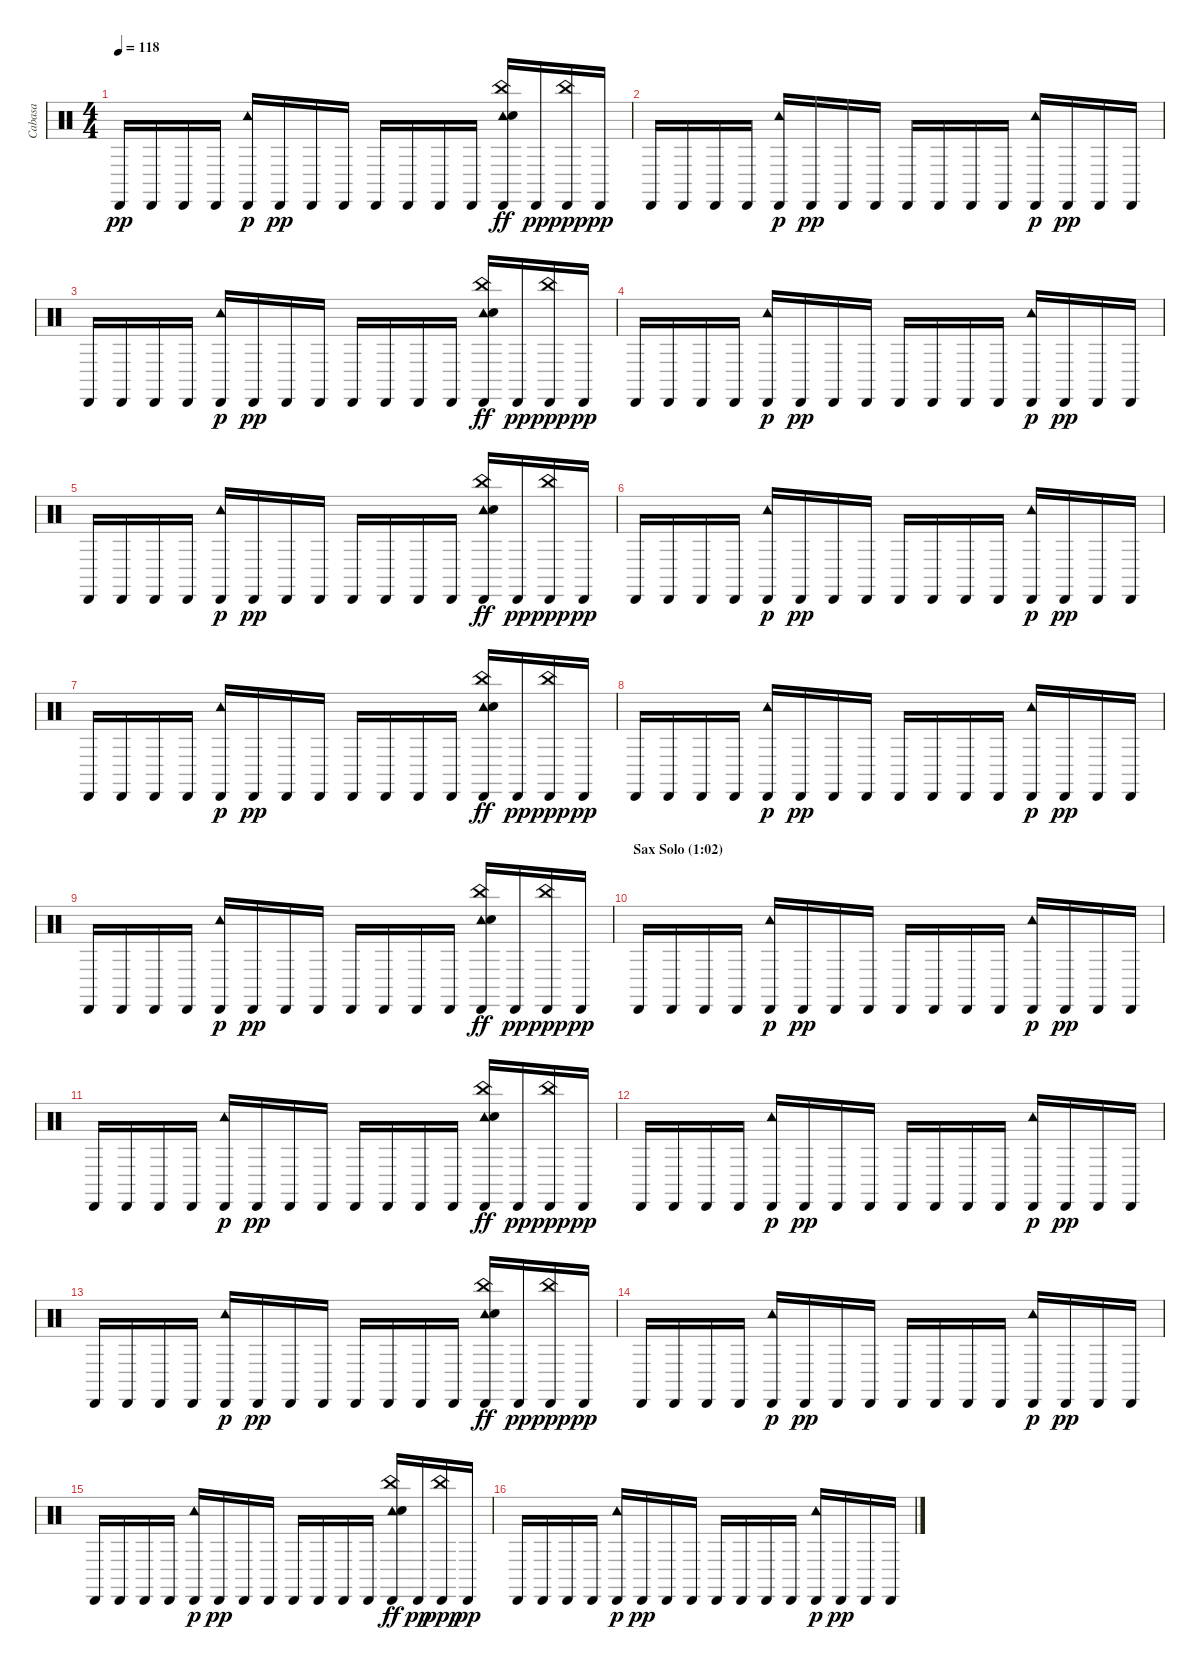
\track ("Cabasa" "Cabasa") {instrument percussion}
\staff {score}
\articulation defaults
\ts (4 4)
\tempo 118
\clef neutral
\ks c "Cabasa (hit)".16{dy pp} "Cabasa (hit)".16 "Cabasa (hit)".16 "Cabasa (hit)".16
("Cabasa (hit)" "Tambourine (hit)").16{dy p} "Cabasa (hit)".16{dy pp} "Cabasa (hit)".16 "Cabasa (hit)".16 "Cabasa (hit)".16 "Cabasa (hit)".16 "Cabasa (hit)".16 "Cabasa (hit)".16 ("Cabasa (hit)" "Tambourine (hit)" "Hand Clap (hit)" "China (hit)").16{dy ff} "Cabasa (hit)".16{dy pp} ("Cabasa (hit)" "China (hit)").16{dy ppp} "Cabasa (hit)".16{dy pp} |
"Cabasa (hit)".16 "Cabasa (hit)".16 "Cabasa (hit)".16 "Cabasa (hit)".16 ("Cabasa (hit)" "Tambourine (hit)").16{dy p} "Cabasa (hit)".16{dy pp} "Cabasa (hit)".16 "Cabasa (hit)".16 "Cabasa (hit)".16 "Cabasa (hit)".16 "Cabasa (hit)".16 "Cabasa (hit)".16 ("Cabasa (hit)" "Tambourine (hit)").16{dy p} "Cabasa (hit)".16{dy pp} "Cabasa (hit)".16 "Cabasa (hit)".16 |
"Cabasa (hit)".16 "Cabasa (hit)".16 "Cabasa (hit)".16 "Cabasa (hit)".16 ("Cabasa (hit)" "Tambourine (hit)").16{dy p} "Cabasa (hit)".16{dy pp} "Cabasa (hit)".16 "Cabasa (hit)".16 "Cabasa (hit)".16 "Cabasa (hit)".16 "Cabasa (hit)".16 "Cabasa (hit)".16 ("Cabasa (hit)" "Tambourine (hit)" "Hand Clap (hit)" "China (hit)").16{dy ff} "Cabasa (hit)".16{dy pp} ("Cabasa (hit)" "China (hit)").16{dy ppp} "Cabasa (hit)".16{dy pp} |
"Cabasa (hit)".16 "Cabasa (hit)".16 "Cabasa (hit)".16 "Cabasa (hit)".16 ("Cabasa (hit)" "Tambourine (hit)").16{dy p} "Cabasa (hit)".16{dy pp} "Cabasa (hit)".16 "Cabasa (hit)".16 "Cabasa (hit)".16 "Cabasa (hit)".16 "Cabasa (hit)".16 "Cabasa (hit)".16 ("Cabasa (hit)" "Tambourine (hit)").16{dy p} "Cabasa (hit)".16{dy pp} "Cabasa (hit)".16 "Cabasa (hit)".16 |
"Cabasa (hit)".16 "Cabasa (hit)".16 "Cabasa (hit)".16 "Cabasa (hit)".16 ("Cabasa (hit)" "Tambourine (hit)").16{dy p} "Cabasa (hit)".16{dy pp} "Cabasa (hit)".16 "Cabasa (hit)".16 "Cabasa (hit)".16 "Cabasa (hit)".16 "Cabasa (hit)".16 "Cabasa (hit)".16 ("Cabasa (hit)" "Tambourine (hit)" "Hand Clap (hit)" "China (hit)").16{dy ff} "Cabasa (hit)".16{dy pp} ("Cabasa (hit)" "China (hit)").16{dy ppp} "Cabasa (hit)".16{dy pp} |
"Cabasa (hit)".16 "Cabasa (hit)".16 "Cabasa (hit)".16 "Cabasa (hit)".16 ("Cabasa (hit)" "Tambourine (hit)").16{dy p} "Cabasa (hit)".16{dy pp} "Cabasa (hit)".16 "Cabasa (hit)".16 "Cabasa (hit)".16 "Cabasa (hit)".16 "Cabasa (hit)".16 "Cabasa (hit)".16 ("Cabasa (hit)" "Tambourine (hit)").16{dy p} "Cabasa (hit)".16{dy pp} "Cabasa (hit)".16 "Cabasa (hit)".16 |
"Cabasa (hit)".16 "Cabasa (hit)".16 "Cabasa (hit)".16 "Cabasa (hit)".16 ("Cabasa (hit)" "Tambourine (hit)").16{dy p} "Cabasa (hit)".16{dy pp} "Cabasa (hit)".16 "Cabasa (hit)".16 "Cabasa (hit)".16 "Cabasa (hit)".16 "Cabasa (hit)".16 "Cabasa (hit)".16 ("Cabasa (hit)" "Tambourine (hit)" "Hand Clap (hit)" "China (hit)").16{dy ff} "Cabasa (hit)".16{dy pp} ("Cabasa (hit)" "China (hit)").16{dy ppp} "Cabasa (hit)".16{dy pp} |
"Cabasa (hit)".16 "Cabasa (hit)".16 "Cabasa (hit)".16 "Cabasa (hit)".16 ("Cabasa (hit)" "Tambourine (hit)").16{dy p} "Cabasa (hit)".16{dy pp} "Cabasa (hit)".16 "Cabasa (hit)".16 "Cabasa (hit)".16 "Cabasa (hit)".16 "Cabasa (hit)".16 "Cabasa (hit)".16 ("Cabasa (hit)" "Tambourine (hit)").16{dy p} "Cabasa (hit)".16{dy pp} "Cabasa (hit)".16 "Cabasa (hit)".16 |
"Cabasa (hit)".16 "Cabasa (hit)".16 "Cabasa (hit)".16 "Cabasa (hit)".16 ("Cabasa (hit)" "Tambourine (hit)").16{dy p} "Cabasa (hit)".16{dy pp} "Cabasa (hit)".16 "Cabasa (hit)".16 "Cabasa (hit)".16 "Cabasa (hit)".16 "Cabasa (hit)".16 "Cabasa (hit)".16 ("Cabasa (hit)" "Tambourine (hit)" "Hand Clap (hit)" "China (hit)").16{dy ff} "Cabasa (hit)".16{dy pp} ("Cabasa (hit)" "China (hit)").16{dy ppp} "Cabasa (hit)".16{dy pp} |
\section ("" "Sax Solo (1:02)")
"Cabasa (hit)".16 "Cabasa (hit)".16 "Cabasa (hit)".16 "Cabasa (hit)".16 ("Cabasa (hit)" "Tambourine (hit)").16{dy p} "Cabasa (hit)".16{dy pp} "Cabasa (hit)".16 "Cabasa (hit)".16 "Cabasa (hit)".16 "Cabasa (hit)".16 "Cabasa (hit)".16 "Cabasa (hit)".16 ("Cabasa (hit)" "Tambourine (hit)").16{dy p} "Cabasa (hit)".16{dy pp} "Cabasa (hit)".16 "Cabasa (hit)".16 |
"Cabasa (hit)".16 "Cabasa (hit)".16 "Cabasa (hit)".16 "Cabasa (hit)".16 ("Cabasa (hit)" "Tambourine (hit)").16{dy p} "Cabasa (hit)".16{dy pp} "Cabasa (hit)".16 "Cabasa (hit)".16 "Cabasa (hit)".16 "Cabasa (hit)".16 "Cabasa (hit)".16 "Cabasa (hit)".16 ("Cabasa (hit)" "Tambourine (hit)" "Hand Clap (hit)" "China (hit)").16{dy ff} "Cabasa (hit)".16{dy pp} ("Cabasa (hit)" "China (hit)").16{dy ppp} "Cabasa (hit)".16{dy pp} |
"Cabasa (hit)".16 "Cabasa (hit)".16 "Cabasa (hit)".16 "Cabasa (hit)".16 ("Cabasa (hit)" "Tambourine (hit)").16{dy p} "Cabasa (hit)".16{dy pp} "Cabasa (hit)".16 "Cabasa (hit)".16 "Cabasa (hit)".16 "Cabasa (hit)".16 "Cabasa (hit)".16 "Cabasa (hit)".16 ("Cabasa (hit)" "Tambourine (hit)").16{dy p} "Cabasa (hit)".16{dy pp} "Cabasa (hit)".16 "Cabasa (hit)".16 |
"Cabasa (hit)".16 "Cabasa (hit)".16 "Cabasa (hit)".16 "Cabasa (hit)".16 ("Cabasa (hit)" "Tambourine (hit)").16{dy p} "Cabasa (hit)".16{dy pp} "Cabasa (hit)".16 "Cabasa (hit)".16 "Cabasa (hit)".16 "Cabasa (hit)".16 "Cabasa (hit)".16 "Cabasa (hit)".16 ("Cabasa (hit)" "Tambourine (hit)" "Hand Clap (hit)" "China (hit)").16{dy ff} "Cabasa (hit)".16{dy pp} ("Cabasa (hit)" "China (hit)").16{dy ppp} "Cabasa (hit)".16{dy pp} |
"Cabasa (hit)".16 "Cabasa (hit)".16 "Cabasa (hit)".16 "Cabasa (hit)".16 ("Cabasa (hit)" "Tambourine (hit)").16{dy p} "Cabasa (hit)".16{dy pp} "Cabasa (hit)".16 "Cabasa (hit)".16 "Cabasa (hit)".16 "Cabasa (hit)".16 "Cabasa (hit)".16 "Cabasa (hit)".16 ("Cabasa (hit)" "Tambourine (hit)").16{dy p} "Cabasa (hit)".16{dy pp} "Cabasa (hit)".16 "Cabasa (hit)".16 |
"Cabasa (hit)".16 "Cabasa (hit)".16 "Cabasa (hit)".16 "Cabasa (hit)".16 ("Cabasa (hit)" "Tambourine (hit)").16{dy p} "Cabasa (hit)".16{dy pp} "Cabasa (hit)".16 "Cabasa (hit)".16 "Cabasa (hit)".16 "Cabasa (hit)".16 "Cabasa (hit)".16 "Cabasa (hit)".16 ("Cabasa (hit)" "Tambourine (hit)" "Hand Clap (hit)" "China (hit)").16{dy ff} "Cabasa (hit)".16{dy pp} ("Cabasa (hit)" "China (hit)").16{dy ppp} "Cabasa (hit)".16{dy pp} |
"Cabasa (hit)".16 "Cabasa (hit)".16 "Cabasa (hit)".16 "Cabasa (hit)".16 ("Cabasa (hit)" "Tambourine (hit)").16{dy p} "Cabasa (hit)".16{dy pp} "Cabasa (hit)".16 "Cabasa (hit)".16 "Cabasa (hit)".16 "Cabasa (hit)".16 "Cabasa (hit)".16 "Cabasa (hit)".16 ("Cabasa (hit)" "Tambourine (hit)").16{dy p} "Cabasa (hit)".16{dy pp} "Cabasa (hit)".16 "Cabasa (hit)".16
